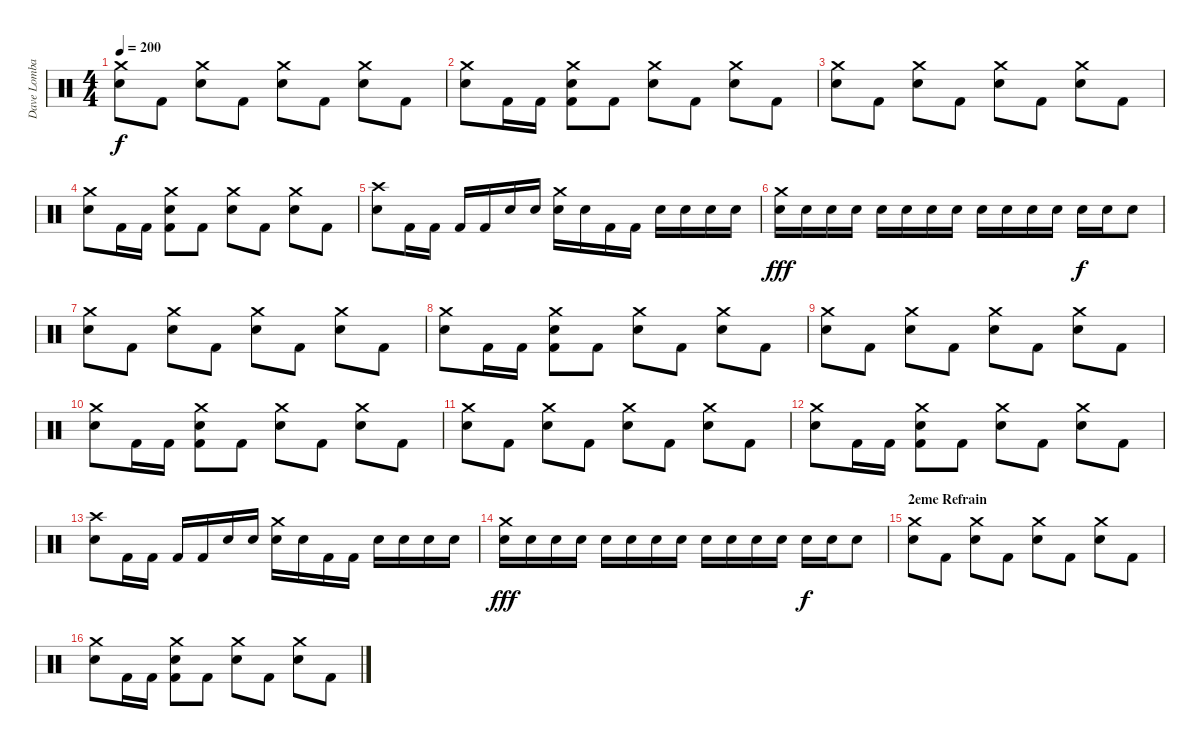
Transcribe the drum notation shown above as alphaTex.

\track ("Dave Lombardo - Drums" "Dave Lomba") {instrument percussion}
\staff {score}
\articulation defaults
\ts (4 4)
\tempo 200
\clef neutral
\ks c
("Crash medium (hit)" "Electric Snare (hit)").8{dy f} "Kick (hit) 2".8 ("Crash medium (hit)" "Electric Snare (hit)").8 "Kick (hit) 2".8 ("Crash medium (hit)" "Electric Snare (hit)").8 "Kick (hit) 2".8 ("Crash medium (hit)" "Electric Snare (hit)").8 "Kick (hit) 2".8 |
("Crash medium (hit)" "Electric Snare (hit)").8 "Kick (hit) 2".16 "Kick (hit) 2".16 ("Crash medium (hit)" "Electric Snare (hit)" "Kick (hit) 2").8 "Kick (hit) 2".8 ("Crash medium (hit)" "Electric Snare (hit)").8 "Kick (hit) 2".8 ("Crash medium (hit)" "Electric Snare (hit)").8 "Kick (hit) 2".8 |
("Crash medium (hit)" "Electric Snare (hit)").8 "Kick (hit) 2".8 ("Crash medium (hit)" "Electric Snare (hit)").8 "Kick (hit) 2".8 ("Crash medium (hit)" "Electric Snare (hit)").8 "Kick (hit) 2".8 ("Crash medium (hit)" "Electric Snare (hit)").8 "Kick (hit) 2".8 |
("Crash medium (hit)" "Electric Snare (hit)").8 "Kick (hit) 2".16 "Kick (hit) 2".16 ("Crash medium (hit)" "Electric Snare (hit)" "Kick (hit) 2").8 "Kick (hit) 2".8 ("Crash medium (hit)" "Electric Snare (hit)").8 "Kick (hit) 2".8 ("Crash medium (hit)" "Electric Snare (hit)").8 "Kick (hit) 2".8 |
("Crash high (hit)" "Electric Snare (hit)").8 "Kick (hit) 2".16 "Kick (hit) 2".16 "Kick (hit) 2".16 "Kick (hit) 2".16 "Electric Snare (hit)".16 "Electric Snare (hit)".16 ("Crash medium (hit)" "Electric Snare (hit)").16 "Electric Snare (hit)".16 "Kick (hit) 2".16 "Kick (hit) 2".16 "Electric Snare (hit)".16 "Electric Snare (hit)".16 "Electric Snare (hit)".16 "Electric Snare (hit)".16 |
("Crash medium (hit)" "Electric Snare (hit)").16{dy fff} "Electric Snare (hit)".16 "Electric Snare (hit)".16 "Electric Snare (hit)".16 "Electric Snare (hit)".16 "Electric Snare (hit)".16 "Electric Snare (hit)".16 "Electric Snare (hit)".16 "Electric Snare (hit)".16 "Electric Snare (hit)".16 "Electric Snare (hit)".16 "Electric Snare (hit)".16 "Electric Snare (hit)".16{dy f} "Electric Snare (hit)".16 "Electric Snare (hit)".8 |
("Crash medium (hit)" "Electric Snare (hit)").8 "Kick (hit) 2".8 ("Crash medium (hit)" "Electric Snare (hit)").8 "Kick (hit) 2".8 ("Crash medium (hit)" "Electric Snare (hit)").8 "Kick (hit) 2".8 ("Crash medium (hit)" "Electric Snare (hit)").8 "Kick (hit) 2".8 |
("Crash medium (hit)" "Electric Snare (hit)").8 "Kick (hit) 2".16 "Kick (hit) 2".16 ("Crash medium (hit)" "Electric Snare (hit)" "Kick (hit) 2").8 "Kick (hit) 2".8 ("Crash medium (hit)" "Electric Snare (hit)").8 "Kick (hit) 2".8 ("Crash medium (hit)" "Electric Snare (hit)").8 "Kick (hit) 2".8 |
("Crash medium (hit)" "Electric Snare (hit)").8 "Kick (hit) 2".8 ("Crash medium (hit)" "Electric Snare (hit)").8 "Kick (hit) 2".8 ("Crash medium (hit)" "Electric Snare (hit)").8 "Kick (hit) 2".8 ("Crash medium (hit)" "Electric Snare (hit)").8 "Kick (hit) 2".8 |
("Crash medium (hit)" "Electric Snare (hit)").8 "Kick (hit) 2".16 "Kick (hit) 2".16 ("Crash medium (hit)" "Electric Snare (hit)" "Kick (hit) 2").8 "Kick (hit) 2".8 ("Crash medium (hit)" "Electric Snare (hit)").8 "Kick (hit) 2".8 ("Crash medium (hit)" "Electric Snare (hit)").8 "Kick (hit) 2".8 |
("Crash medium (hit)" "Electric Snare (hit)").8 "Kick (hit) 2".8 ("Crash medium (hit)" "Electric Snare (hit)").8 "Kick (hit) 2".8 ("Crash medium (hit)" "Electric Snare (hit)").8 "Kick (hit) 2".8 ("Crash medium (hit)" "Electric Snare (hit)").8 "Kick (hit) 2".8 |
("Crash medium (hit)" "Electric Snare (hit)").8 "Kick (hit) 2".16 "Kick (hit) 2".16 ("Crash medium (hit)" "Electric Snare (hit)" "Kick (hit) 2").8 "Kick (hit) 2".8 ("Crash medium (hit)" "Electric Snare (hit)").8 "Kick (hit) 2".8 ("Crash medium (hit)" "Electric Snare (hit)").8 "Kick (hit) 2".8 |
("Crash high (hit)" "Electric Snare (hit)").8 "Kick (hit) 2".16 "Kick (hit) 2".16 "Kick (hit) 2".16 "Kick (hit) 2".16 "Electric Snare (hit)".16 "Electric Snare (hit)".16 ("Crash medium (hit)" "Electric Snare (hit)").16 "Electric Snare (hit)".16 "Kick (hit) 2".16 "Kick (hit) 2".16 "Electric Snare (hit)".16 "Electric Snare (hit)".16 "Electric Snare (hit)".16 "Electric Snare (hit)".16 |
("Crash medium (hit)" "Electric Snare (hit)").16{dy fff} "Electric Snare (hit)".16 "Electric Snare (hit)".16 "Electric Snare (hit)".16 "Electric Snare (hit)".16 "Electric Snare (hit)".16 "Electric Snare (hit)".16 "Electric Snare (hit)".16 "Electric Snare (hit)".16 "Electric Snare (hit)".16 "Electric Snare (hit)".16 "Electric Snare (hit)".16 "Electric Snare (hit)".16{dy f} "Electric Snare (hit)".16 "Electric Snare (hit)".8 |
\section ("" "2eme Refrain")
("Crash medium (hit)" "Electric Snare (hit)").8 "Kick (hit) 2".8 ("Crash medium (hit)" "Electric Snare (hit)").8 "Kick (hit) 2".8 ("Crash medium (hit)" "Electric Snare (hit)").8 "Kick (hit) 2".8 ("Crash medium (hit)" "Electric Snare (hit)").8 "Kick (hit) 2".8 |
("Crash medium (hit)" "Electric Snare (hit)").8 "Kick (hit) 2".16 "Kick (hit) 2".16 ("Crash medium (hit)" "Electric Snare (hit)" "Kick (hit) 2").8 "Kick (hit) 2".8 ("Crash medium (hit)" "Electric Snare (hit)").8 "Kick (hit) 2".8 ("Crash medium (hit)" "Electric Snare (hit)").8 "Kick (hit) 2".8
